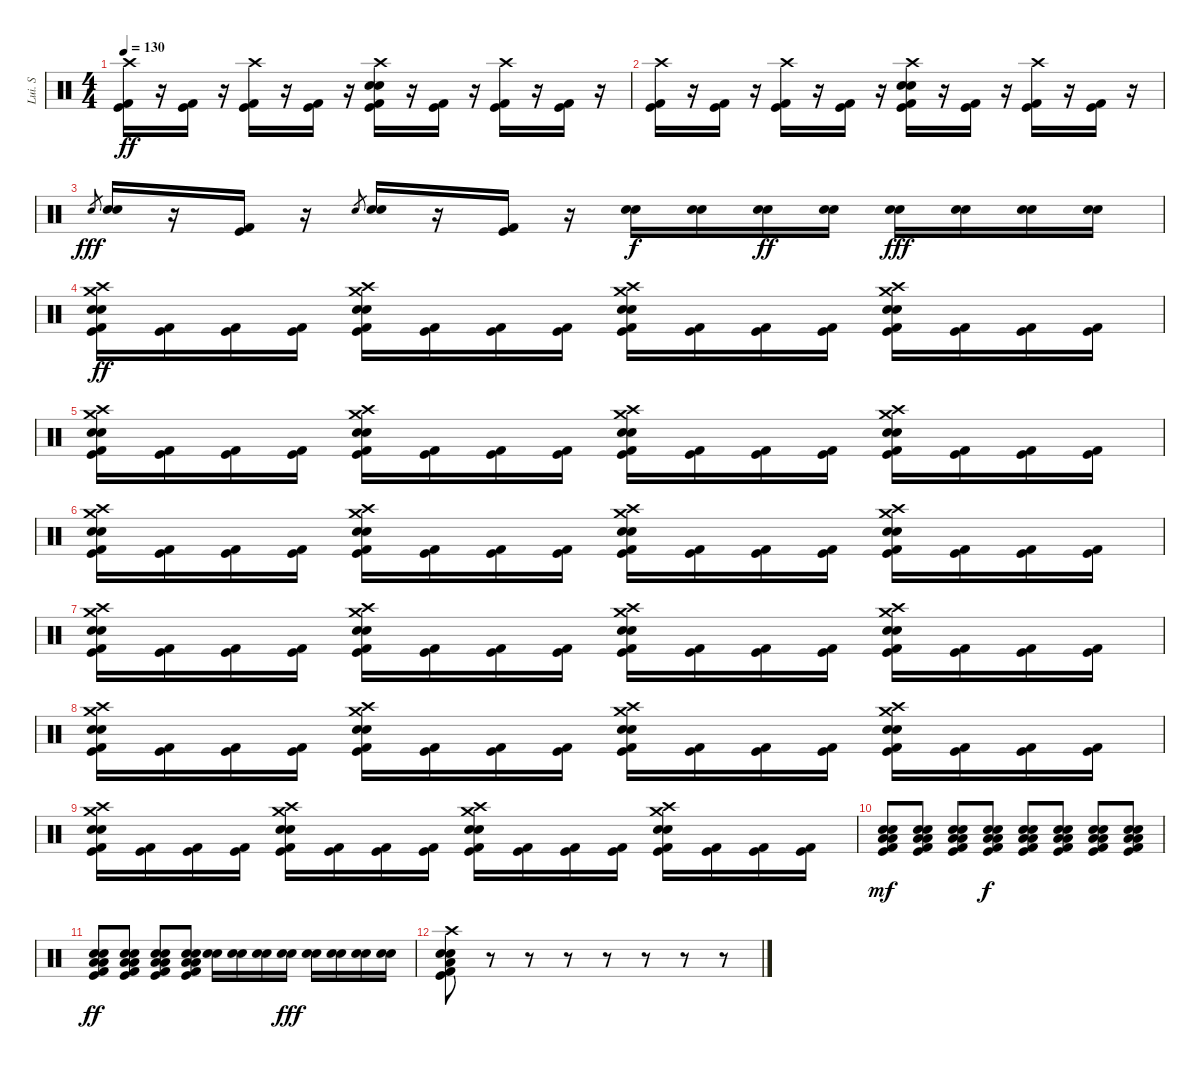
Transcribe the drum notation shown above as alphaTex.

\track ("Lui. S" "Lui. S") {instrument percussion}
\staff {score}
\articulation defaults
\ts (4 4)
\tempo 130
\clef neutral
\ks c
("Crash high (hit)" "Kick (hit)" "Kick (hit) 2").16{dy ff} r.16 ("Kick (hit)" "Kick (hit) 2").16 r.16 ("Crash high (hit)" "Kick (hit)" "Kick (hit) 2").16 r.16 ("Kick (hit)" "Kick (hit) 2").16 r.16 ("Crash high (hit)" "Electric Snare (hit)" "Snare (hit) 2" "Kick (hit)" "Kick (hit) 2").16 r.16 ("Kick (hit)" "Kick (hit) 2").16 r.16 ("Crash high (hit)" "Kick (hit)" "Kick (hit) 2").16 r.16 ("Kick (hit)" "Kick (hit) 2").16 r.16 |
("Crash high (hit)" "Kick (hit)" "Kick (hit) 2").16 r.16 ("Kick (hit)" "Kick (hit) 2").16 r.16 ("Crash high (hit)" "Kick (hit)" "Kick (hit) 2").16 r.16 ("Kick (hit)" "Kick (hit) 2").16 r.16 ("Crash high (hit)" "Electric Snare (hit)" "Snare (hit) 2" "Kick (hit)" "Kick (hit) 2").16 r.16 ("Kick (hit)" "Kick (hit) 2").16 r.16 ("Crash high (hit)" "Kick (hit)" "Kick (hit) 2").16 r.16 ("Kick (hit)" "Kick (hit) 2").16 r.16 |
"Electric Snare (hit)".8{gr dy fff} ("Electric Snare (hit)" "Snare (hit) 2").16 r.16 ("Kick (hit)" "Kick (hit) 2").16 r.16 "Electric Snare (hit)".8{gr} ("Electric Snare (hit)" "Snare (hit) 2").16 r.16 ("Kick (hit)" "Kick (hit) 2").16 r.16 ("Electric Snare (hit)" "Snare (hit) 2").16{dy f} ("Electric Snare (hit)" "Snare (hit) 2").16 ("Electric Snare (hit)" "Snare (hit) 2").16{dy ff} ("Electric Snare (hit)" "Snare (hit) 2").16 ("Electric Snare (hit)" "Snare (hit) 2").16{dy fff} ("Electric Snare (hit)" "Snare (hit) 2").16 ("Electric Snare (hit)" "Snare (hit) 2").16 ("Electric Snare (hit)" "Snare (hit) 2").16 |
("Crash high (hit)" "Crash medium (hit)" "Electric Snare (hit)" "Snare (hit) 2" "Kick (hit) 2" "Kick (hit)").16{dy ff} ("Kick (hit)" "Kick (hit) 2").16 ("Kick (hit)" "Kick (hit) 2").16 ("Kick (hit)" "Kick (hit) 2").16 ("Crash high (hit)" "Crash medium (hit)" "Electric Snare (hit)" "Snare (hit) 2" "Kick (hit)" "Kick (hit) 2").16 ("Kick (hit)" "Kick (hit) 2").16 ("Kick (hit)" "Kick (hit) 2").16 ("Kick (hit)" "Kick (hit) 2").16 ("Crash high (hit)" "Crash medium (hit)" "Electric Snare (hit)" "Snare (hit) 2" "Kick (hit)" "Kick (hit) 2").16 ("Kick (hit)" "Kick (hit) 2").16 ("Kick (hit)" "Kick (hit) 2").16 ("Kick (hit)" "Kick (hit) 2").16 ("Crash high (hit)" "Crash medium (hit)" "Electric Snare (hit)" "Snare (hit) 2" "Kick (hit)" "Kick (hit) 2").16 ("Kick (hit)" "Kick (hit) 2").16 ("Kick (hit)" "Kick (hit) 2").16 ("Kick (hit)" "Kick (hit) 2").16 |
("Crash high (hit)" "Crash medium (hit)" "Electric Snare (hit)" "Snare (hit) 2" "Kick (hit)" "Kick (hit) 2").16 ("Kick (hit)" "Kick (hit) 2").16 ("Kick (hit)" "Kick (hit) 2").16 ("Kick (hit)" "Kick (hit) 2").16 ("Crash high (hit)" "Crash medium (hit)" "Electric Snare (hit)" "Snare (hit) 2" "Kick (hit)" "Kick (hit) 2").16 ("Kick (hit)" "Kick (hit) 2").16 ("Kick (hit)" "Kick (hit) 2").16 ("Kick (hit)" "Kick (hit) 2").16 ("Crash high (hit)" "Crash medium (hit)" "Electric Snare (hit)" "Snare (hit) 2" "Kick (hit)" "Kick (hit) 2").16 ("Kick (hit)" "Kick (hit) 2").16 ("Kick (hit)" "Kick (hit) 2").16 ("Kick (hit)" "Kick (hit) 2").16 ("Crash high (hit)" "Crash medium (hit)" "Electric Snare (hit)" "Snare (hit) 2" "Kick (hit)" "Kick (hit) 2").16 ("Kick (hit)" "Kick (hit) 2").16 ("Kick (hit)" "Kick (hit) 2").16 ("Kick (hit)" "Kick (hit) 2").16 |
("Crash high (hit)" "Crash medium (hit)" "Electric Snare (hit)" "Snare (hit) 2" "Kick (hit)" "Kick (hit) 2").16 ("Kick (hit)" "Kick (hit) 2").16 ("Kick (hit)" "Kick (hit) 2").16 ("Kick (hit)" "Kick (hit) 2").16 ("Crash high (hit)" "Crash medium (hit)" "Electric Snare (hit)" "Snare (hit) 2" "Kick (hit)" "Kick (hit) 2").16 ("Kick (hit)" "Kick (hit) 2").16 ("Kick (hit)" "Kick (hit) 2").16 ("Kick (hit)" "Kick (hit) 2").16 ("Crash high (hit)" "Crash medium (hit)" "Electric Snare (hit)" "Snare (hit) 2" "Kick (hit)" "Kick (hit) 2").16 ("Kick (hit)" "Kick (hit) 2").16 ("Kick (hit)" "Kick (hit) 2").16 ("Kick (hit)" "Kick (hit) 2").16 ("Crash high (hit)" "Crash medium (hit)" "Electric Snare (hit)" "Snare (hit) 2" "Kick (hit)" "Kick (hit) 2").16 ("Kick (hit)" "Kick (hit) 2").16 ("Kick (hit)" "Kick (hit) 2").16 ("Kick (hit)" "Kick (hit) 2").16 |
("Crash high (hit)" "Crash medium (hit)" "Electric Snare (hit)" "Snare (hit) 2" "Kick (hit)" "Kick (hit) 2").16 ("Kick (hit)" "Kick (hit) 2").16 ("Kick (hit)" "Kick (hit) 2").16 ("Kick (hit)" "Kick (hit) 2").16 ("Crash high (hit)" "Crash medium (hit)" "Electric Snare (hit)" "Snare (hit) 2" "Kick (hit)" "Kick (hit) 2").16 ("Kick (hit)" "Kick (hit) 2").16 ("Kick (hit)" "Kick (hit) 2").16 ("Kick (hit)" "Kick (hit) 2").16 ("Crash high (hit)" "Crash medium (hit)" "Electric Snare (hit)" "Snare (hit) 2" "Kick (hit)" "Kick (hit) 2").16 ("Kick (hit)" "Kick (hit) 2").16 ("Kick (hit)" "Kick (hit) 2").16 ("Kick (hit)" "Kick (hit) 2").16 ("Crash high (hit)" "Crash medium (hit)" "Electric Snare (hit)" "Snare (hit) 2" "Kick (hit)" "Kick (hit) 2").16 ("Kick (hit)" "Kick (hit) 2").16 ("Kick (hit)" "Kick (hit) 2").16 ("Kick (hit)" "Kick (hit) 2").16 |
("Crash high (hit)" "Crash medium (hit)" "Electric Snare (hit)" "Snare (hit) 2" "Kick (hit)" "Kick (hit) 2").16 ("Kick (hit)" "Kick (hit) 2").16 ("Kick (hit)" "Kick (hit) 2").16 ("Kick (hit)" "Kick (hit) 2").16 ("Crash high (hit)" "Crash medium (hit)" "Electric Snare (hit)" "Snare (hit) 2" "Kick (hit)" "Kick (hit) 2").16 ("Kick (hit)" "Kick (hit) 2").16 ("Kick (hit)" "Kick (hit) 2").16 ("Kick (hit)" "Kick (hit) 2").16 ("Crash high (hit)" "Crash medium (hit)" "Electric Snare (hit)" "Snare (hit) 2" "Kick (hit)" "Kick (hit) 2").16 ("Kick (hit)" "Kick (hit) 2").16 ("Kick (hit)" "Kick (hit) 2").16 ("Kick (hit)" "Kick (hit) 2").16 ("Crash high (hit)" "Crash medium (hit)" "Electric Snare (hit)" "Snare (hit) 2" "Kick (hit)" "Kick (hit) 2").16 ("Kick (hit)" "Kick (hit) 2").16 ("Kick (hit)" "Kick (hit) 2").16 ("Kick (hit)" "Kick (hit) 2").16 |
("Crash high (hit)" "Crash medium (hit)" "Electric Snare (hit)" "Snare (hit) 2" "Kick (hit)" "Kick (hit) 2").16 ("Kick (hit)" "Kick (hit) 2").16 ("Kick (hit)" "Kick (hit) 2").16 ("Kick (hit)" "Kick (hit) 2").16 ("Crash high (hit)" "Crash medium (hit)" "Electric Snare (hit)" "Snare (hit) 2" "Kick (hit)" "Kick (hit) 2").16 ("Kick (hit)" "Kick (hit) 2").16 ("Kick (hit)" "Kick (hit) 2").16 ("Kick (hit)" "Kick (hit) 2").16 ("Crash high (hit)" "Crash medium (hit)" "Electric Snare (hit)" "Snare (hit) 2" "Kick (hit)" "Kick (hit) 2").16 ("Kick (hit)" "Kick (hit) 2").16 ("Kick (hit)" "Kick (hit) 2").16 ("Kick (hit)" "Kick (hit) 2").16 ("Crash high (hit)" "Crash medium (hit)" "Electric Snare (hit)" "Snare (hit) 2" "Kick (hit)" "Kick (hit) 2").16 ("Kick (hit)" "Kick (hit) 2").16 ("Kick (hit)" "Kick (hit) 2").16 ("Kick (hit)" "Kick (hit) 2").16 |
("Low Floor Tom (hit)" "Low Floor Tom (hit)" "Snare (hit) 2" "Electric Snare (hit)" "Kick (hit) 2" "Kick (hit)").8{dy mf} ("Low Floor Tom (hit)" "Low Floor Tom (hit)" "Snare (hit) 2" "Electric Snare (hit)" "Kick (hit) 2" "Kick (hit)").8 ("Low Floor Tom (hit)" "Low Floor Tom (hit)" "Snare (hit) 2" "Electric Snare (hit)" "Kick (hit) 2" "Kick (hit)").8 ("Low Floor Tom (hit)" "Low Floor Tom (hit)" "Snare (hit) 2" "Electric Snare (hit)" "Kick (hit) 2" "Kick (hit)").8{dy f} ("Low Floor Tom (hit)" "Low Floor Tom (hit)" "Snare (hit) 2" "Electric Snare (hit)" "Kick (hit) 2" "Kick (hit)").8 ("Low Floor Tom (hit)" "Low Floor Tom (hit)" "Snare (hit) 2" "Electric Snare (hit)" "Kick (hit) 2" "Kick (hit)").8 ("Low Floor Tom (hit)" "Low Floor Tom (hit)" "Snare (hit) 2" "Electric Snare (hit)" "Kick (hit) 2" "Kick (hit)").8 ("Low Floor Tom (hit)" "Low Floor Tom (hit)" "Snare (hit) 2" "Electric Snare (hit)" "Kick (hit) 2" "Kick (hit)").8 |
("Low Floor Tom (hit)" "Low Floor Tom (hit)" "Snare (hit) 2" "Electric Snare (hit)" "Kick (hit) 2" "Kick (hit)").8{dy ff} ("Low Floor Tom (hit)" "Low Floor Tom (hit)" "Snare (hit) 2" "Electric Snare (hit)" "Kick (hit) 2" "Kick (hit)").8 ("Low Floor Tom (hit)" "Low Floor Tom (hit)" "Snare (hit) 2" "Electric Snare (hit)" "Kick (hit) 2" "Kick (hit)").8 ("Low Floor Tom (hit)" "Low Floor Tom (hit)" "Snare (hit) 2" "Electric Snare (hit)" "Kick (hit) 2" "Kick (hit)").8 ("Snare (hit) 2" "Electric Snare (hit)").16 ("Snare (hit) 2" "Electric Snare (hit)").16 ("Snare (hit) 2" "Electric Snare (hit)").16 ("Snare (hit) 2" "Electric Snare (hit)").16{dy fff} ("Snare (hit) 2" "Electric Snare (hit)").16 ("Snare (hit) 2" "Electric Snare (hit)").16 ("Snare (hit) 2" "Electric Snare (hit)").16 ("Snare (hit) 2" "Electric Snare (hit)").16 |
("Crash high (hit)" "Low Floor Tom (hit)" "Electric Snare (hit)" "Snare (hit) 2" "Kick (hit)" "Kick (hit) 2").8 r.8 r.8 r.8 r.8 r.8 r.8 r.8
